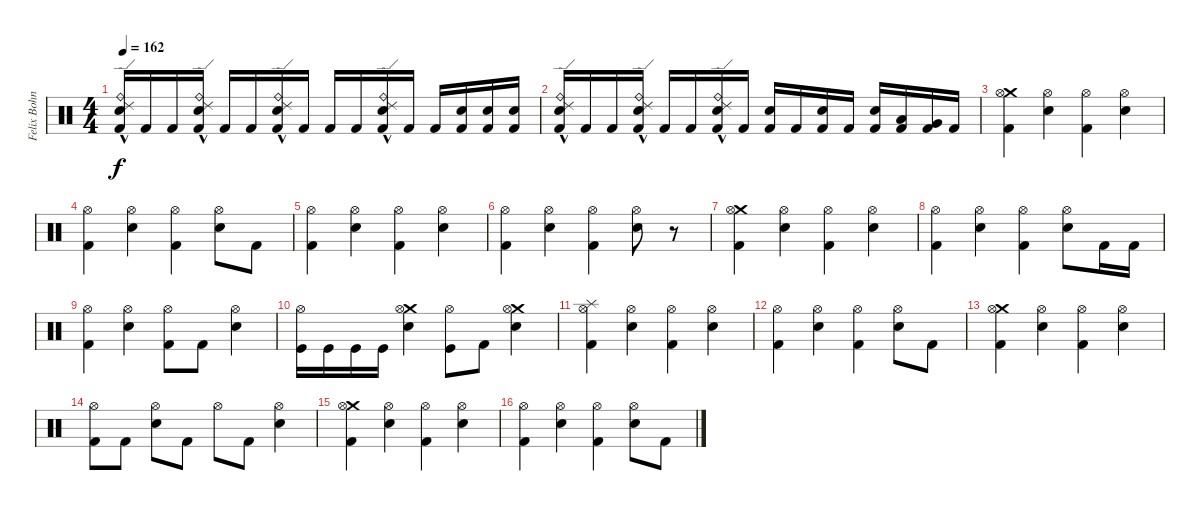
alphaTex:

\track ("Felix Bohnke" "Felix Bohn") {instrument percussion}
\staff {score}
\articulation defaults
\ts (4 4)
\tempo 162
\clef neutral
\ks c
("Electric Snare (hit)"{hac} "Ride (bell)"{hac} "Ride (edge) 2"{hac} "Kick (hit) 2").16{dy f} "Kick (hit) 2".16 "Kick (hit) 2".16 ("Electric Snare (hit)"{hac} "Ride (bell)"{hac} "Ride (edge) 2"{hac} "Kick (hit) 2").16 "Kick (hit) 2".16 "Kick (hit) 2".16 ("Electric Snare (hit)"{hac} "Ride (bell)"{hac} "Ride (edge) 2"{hac} "Kick (hit) 2").16 "Kick (hit) 2".16 "Kick (hit) 2".16 "Kick (hit) 2".16 ("Electric Snare (hit)"{hac} "Ride (bell)"{hac} "Ride (edge) 2"{hac} "Kick (hit) 2").16 "Kick (hit) 2".16 "Kick (hit) 2".16 ("Electric Snare (hit)" "Kick (hit) 2").16 ("Electric Snare (hit)" "Kick (hit) 2").16 ("Electric Snare (hit)" "Kick (hit) 2").16 |
("Ride (bell)"{hac} "Electric Snare (hit)"{hac} "Ride (edge) 2"{hac} "Kick (hit) 2").16 "Kick (hit) 2".16 "Kick (hit) 2".16 ("Ride (bell)"{hac} "Electric Snare (hit)"{hac} "Ride (edge) 2"{hac} "Kick (hit) 2").16 "Kick (hit) 2".16 "Kick (hit) 2".16 ("Ride (bell)"{hac} "Electric Snare (hit)" "Ride (edge) 2"{hac} "Kick (hit) 2").16 "Kick (hit) 2".16 ("Electric Snare (hit)" "Kick (hit) 2").16 "Kick (hit) 2".16 ("Electric Snare (hit)" "Kick (hit) 2").16 "Kick (hit) 2".16 ("Electric Snare (hit)" "Kick (hit) 2").16 ("Low Tom (hit)" "Kick (hit) 2").16 ("Very Low Tom (hit)" "Kick (hit) 2").16 "Kick (hit) 2".16 |
("Crash medium (hit)" "Kick (hit) 2" "Hi-Hat (open)").4 ("Electric Snare (hit)" "Hi-Hat (open)").4 ("Kick (hit) 2" "Hi-Hat (open)").4 ("Electric Snare (hit)" "Hi-Hat (open)").4 |
("Kick (hit) 2" "Hi-Hat (open)").4 ("Electric Snare (hit)" "Hi-Hat (open)").4 ("Kick (hit) 2" "Hi-Hat (open)").4 ("Electric Snare (hit)" "Hi-Hat (open)").8 "Kick (hit) 2".8 |
("Kick (hit) 2" "Hi-Hat (open)").4 ("Electric Snare (hit)" "Hi-Hat (open)").4 ("Kick (hit) 2" "Hi-Hat (open)").4 ("Electric Snare (hit)" "Hi-Hat (open)").4 |
("Kick (hit) 2" "Hi-Hat (open)").4 ("Electric Snare (hit)" "Hi-Hat (open)").4 ("Kick (hit) 2" "Hi-Hat (open)").4 ("Hi-Hat (open)" "Electric Snare (hit)").8 r.8 |
("Crash medium (hit)" "Kick (hit) 2" "Hi-Hat (open)").4 ("Electric Snare (hit)" "Hi-Hat (open)").4 ("Kick (hit) 2" "Hi-Hat (open)").4 ("Electric Snare (hit)" "Hi-Hat (open)").4 |
("Kick (hit) 2" "Hi-Hat (open)").4 ("Electric Snare (hit)" "Hi-Hat (open)").4 ("Kick (hit) 2" "Hi-Hat (open)").4 ("Electric Snare (hit)" "Hi-Hat (open)").8 "Kick (hit) 2".16 "Kick (hit) 2".16 |
("Kick (hit) 2" "Hi-Hat (open)").4 ("Electric Snare (hit)" "Hi-Hat (open)").4 ("Kick (hit) 2" "Hi-Hat (open)").8 "Kick (hit) 2".8 ("Electric Snare (hit)" "Hi-Hat (open)").4 |
("Kick (hit)" "Hi-Hat (open)").16 "Kick (hit)".16 "Kick (hit)".16 "Kick (hit)".16 ("Crash medium (hit)" "Electric Snare (hit)" "Hi-Hat (open)").4 ("Kick (hit)" "Hi-Hat (open)").8 "Kick (hit) 2".8 ("Electric Snare (hit)" "Crash medium (hit)" "Hi-Hat (open)").4 |
("Splash (hit)" "Kick (hit) 2" "Hi-Hat (open)").4 ("Electric Snare (hit)" "Hi-Hat (open)").4 ("Kick (hit) 2" "Hi-Hat (open)").4 ("Electric Snare (hit)" "Hi-Hat (open)").4 |
("Kick (hit) 2" "Hi-Hat (open)").4 ("Electric Snare (hit)" "Hi-Hat (open)").4 ("Kick (hit) 2" "Hi-Hat (open)").4 ("Electric Snare (hit)" "Hi-Hat (open)").8 "Kick (hit) 2".8 |
("Crash medium (hit)" "Kick (hit) 2" "Hi-Hat (open)").4 ("Electric Snare (hit)" "Hi-Hat (open)").4 ("Kick (hit) 2" "Hi-Hat (open)").4 ("Electric Snare (hit)" "Hi-Hat (open)").4 |
("Kick (hit) 2" "Hi-Hat (open)").8 "Kick (hit) 2".8 ("Electric Snare (hit)" "Hi-Hat (open)").8 "Kick (hit) 2".8 "Hi-Hat (open)".8 "Kick (hit) 2".8 ("Electric Snare (hit)" "Hi-Hat (open)").4 |
("Crash medium (hit)" "Kick (hit) 2" "Hi-Hat (open)").4 ("Electric Snare (hit)" "Hi-Hat (open)").4 ("Kick (hit) 2" "Hi-Hat (open)").4 ("Electric Snare (hit)" "Hi-Hat (open)").4 |
("Kick (hit) 2" "Hi-Hat (open)").4 ("Electric Snare (hit)" "Hi-Hat (open)").4 ("Kick (hit) 2" "Hi-Hat (open)").4 ("Electric Snare (hit)" "Hi-Hat (open)").8 "Kick (hit) 2".8
